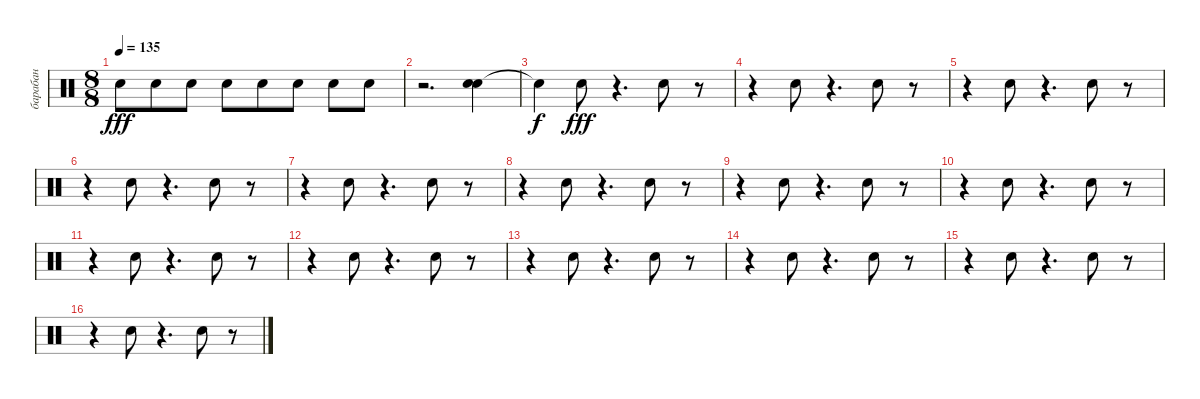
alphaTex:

\track ("барабан" "барабан") {instrument percussion}
\staff {score}
\articulation defaults
\ts (8 8)
\tempo 135
\clef neutral
\ks c "Snare (hit) 2".8{dy fff} "Snare (hit) 2".8 "Snare (hit) 2".8 "Snare (hit) 2".8 "Snare (hit) 2".8 "Snare (hit) 2".8 "Snare (hit) 2".8 "Snare (hit) 2".8
|
r.2{d} ("Snare (hit) 2" "Snare (hit) 2").4 |
"Snare (hit)"{t}.4{dy f} "Snare (hit) 2".8{dy fff} r.4{d} "Snare (hit) 2".8 r.8 |
r.4 "Snare (hit) 2".8 r.4{d} "Snare (hit) 2".8 r.8 |
r.4 "Snare (hit) 2".8 r.4{d} "Snare (hit) 2".8 r.8 |
r.4 "Snare (hit) 2".8 r.4{d} "Snare (hit) 2".8 r.8 |
r.4 "Snare (hit) 2".8 r.4{d} "Snare (hit) 2".8 r.8 |
r.4 "Snare (hit) 2".8 r.4{d} "Snare (hit) 2".8 r.8 |
r.4 "Snare (hit) 2".8 r.4{d} "Snare (hit) 2".8 r.8 |
r.4 "Snare (hit) 2".8 r.4{d} "Snare (hit) 2".8 r.8 |
r.4 "Snare (hit) 2".8 r.4{d} "Snare (hit) 2".8 r.8 |
r.4 "Snare (hit) 2".8 r.4{d} "Snare (hit) 2".8 r.8 |
r.4 "Snare (hit) 2".8 r.4{d} "Snare (hit) 2".8 r.8 |
r.4 "Snare (hit) 2".8 r.4{d} "Snare (hit) 2".8 r.8 |
r.4 "Snare (hit) 2".8 r.4{d} "Snare (hit) 2".8 r.8 |
r.4 "Snare (hit) 2".8 r.4{d} "Snare (hit) 2".8 r.8
